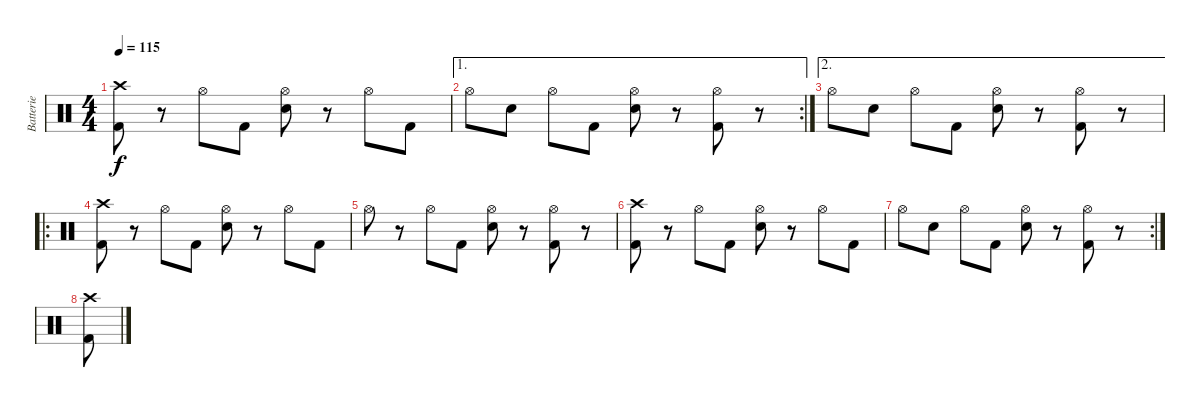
\track ("Batterie" "Batterie") {instrument percussion}
\staff {score}
\articulation defaults
\ts (4 4)
\tempo 115
\clef neutral
\ks c
("Crash high (hit)" "Kick (hit) 2").8{dy f} r.8 "Hi-Hat (open)".8 "Kick (hit) 2".8 ("Hi-Hat (open)" "Electric Snare (hit)").8 r.8 "Hi-Hat (open)".8 "Kick (hit) 2".8 |
\ae 1
\rc 2 "Hi-Hat (open)".8 "Electric Snare (hit)".8 "Hi-Hat (open)".8 "Kick (hit) 2".8
("Hi-Hat (open)" "Electric Snare (hit)").8 r.8 ("Hi-Hat (open)" "Kick (hit) 2").8 r.8 |
\ae 2 "Hi-Hat (open)".8 "Electric Snare (hit)".8 "Hi-Hat (open)".8 "Kick (hit) 2".8
("Hi-Hat (open)" "Electric Snare (hit)").8 r.8 ("Hi-Hat (open)" "Kick (hit) 2").8 r.8 |
\ro
("Crash high (hit)" "Kick (hit) 2").8 r.8 "Hi-Hat (open)".8 "Kick (hit) 2".8 ("Hi-Hat (open)" "Electric Snare (hit)").8 r.8 "Hi-Hat (open)".8 "Kick (hit) 2".8 |
"Hi-Hat (open)".8 r.8 "Hi-Hat (open)".8 "Kick (hit) 2".8 ("Hi-Hat (open)" "Electric Snare (hit)").8 r.8 ("Hi-Hat (open)" "Kick (hit) 2").8 r.8 |
("Crash high (hit)" "Kick (hit) 2").8 r.8 "Hi-Hat (open)".8 "Kick (hit) 2".8 ("Hi-Hat (open)" "Electric Snare (hit)").8 r.8 "Hi-Hat (open)".8 "Kick (hit) 2".8 |
\rc 2 "Hi-Hat (open)".8 "Electric Snare (hit)".8 "Hi-Hat (open)".8 "Kick (hit) 2".8
("Hi-Hat (open)" "Electric Snare (hit)").8 r.8 ("Hi-Hat (open)" "Kick (hit) 2").8 r.8 |
("Crash high (hit)" "Kick (hit) 2").8
